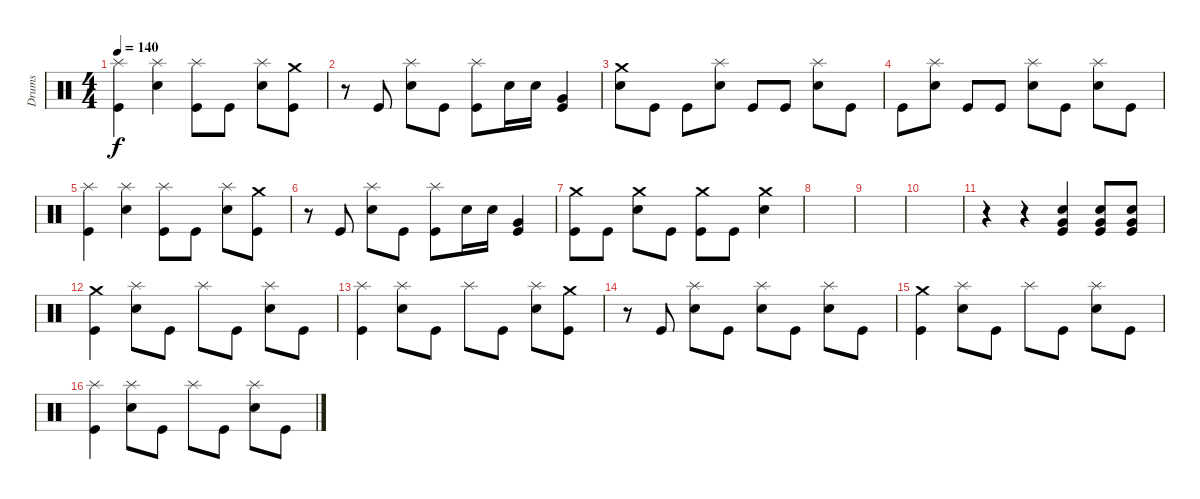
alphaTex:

\track ("Drums" "Drums") {instrument percussion}
\staff {score}
\articulation defaults
\ts (4 4)
\tempo 140
\clef neutral
\ks c
("Splash (hit)" "Kick (hit)").4{dy f} ("Splash (hit)" "Electric Snare (hit)").4 ("Splash (hit)" "Kick (hit)").8 "Kick (hit)".8 ("Splash (hit)" "Electric Snare (hit)").8 ("Crash medium (hit)" "Kick (hit)").8 |
r.8 "Kick (hit)".8 ("Splash (hit)" "Electric Snare (hit)").8 "Kick (hit)".8 ("Splash (hit)" "Kick (hit)").8 "Electric Snare (hit)".16 "Electric Snare (hit)".16 ("Very Low Tom (hit)" "Kick (hit)").4 |
("Crash medium (hit)" "Electric Snare (hit)").8 "Kick (hit)".8 "Kick (hit)".8 ("Splash (hit)" "Electric Snare (hit)").8 "Kick (hit)".8 "Kick (hit)".8 ("Splash (hit)" "Electric Snare (hit)").8 "Kick (hit)".8 |
"Kick (hit)".8 ("Splash (hit)" "Electric Snare (hit)").8 "Kick (hit)".8 "Kick (hit)".8 ("Splash (hit)" "Electric Snare (hit)").8 "Kick (hit)".8 ("Splash (hit)" "Electric Snare (hit)").8 "Kick (hit)".8 |
("Splash (hit)" "Kick (hit)").4 ("Splash (hit)" "Electric Snare (hit)").4 ("Splash (hit)" "Kick (hit)").8 "Kick (hit)".8 ("Splash (hit)" "Electric Snare (hit)").8 ("Crash medium (hit)" "Kick (hit)").8 |
r.8 "Kick (hit)".8 ("Splash (hit)" "Electric Snare (hit)").8 "Kick (hit)".8 ("Splash (hit)" "Kick (hit)").8 "Electric Snare (hit)".16 "Electric Snare (hit)".16 ("Very Low Tom (hit)" "Kick (hit)").4 |
("Crash medium (hit)" "Kick (hit)").8 "Kick (hit)".8 ("Crash medium (hit)" "Electric Snare (hit)").8 "Kick (hit)".8 ("Crash medium (hit)" "Kick (hit)").8 "Kick (hit)".8 ("Crash medium (hit)" "Electric Snare (hit)").4 |
|
|
|
r.4 r.4 ("Very Low Tom (hit)" "Electric Snare (hit)" "Kick (hit)").4 ("Very Low Tom (hit)" "Electric Snare (hit)" "Kick (hit)").8 ("Very Low Tom (hit)" "Electric Snare (hit)" "Kick (hit)").8 |
("Crash medium (hit)" "Kick (hit)").4 ("Splash (hit)" "Electric Snare (hit)").8 "Kick (hit)".8 "Splash (hit)".8 "Kick (hit)".8 ("Splash (hit)" "Electric Snare (hit)").8 "Kick (hit)".8 |
("Splash (hit)" "Kick (hit)").4 ("Splash (hit)" "Electric Snare (hit)").8 "Kick (hit)".8 "Splash (hit)".8 "Kick (hit)".8 ("Splash (hit)" "Electric Snare (hit)").8 ("Crash medium (hit)" "Kick (hit)").8 |
r.8 "Kick (hit)".8 ("Splash (hit)" "Electric Snare (hit)").8 "Kick (hit)".8 ("Splash (hit)" "Electric Snare (hit)").8 "Kick (hit)".8 ("Splash (hit)" "Electric Snare (hit)").8 "Kick (hit)".8 |
("Crash medium (hit)" "Kick (hit)").4 ("Splash (hit)" "Electric Snare (hit)").8 "Kick (hit)".8 "Splash (hit)".8 "Kick (hit)".8 ("Splash (hit)" "Electric Snare (hit)").8 "Kick (hit)".8 |
("Splash (hit)" "Kick (hit)").4 ("Splash (hit)" "Electric Snare (hit)").8 "Kick (hit)".8 "Splash (hit)".8 "Kick (hit)".8 ("Splash (hit)" "Electric Snare (hit)").8 "Kick (hit)".8
